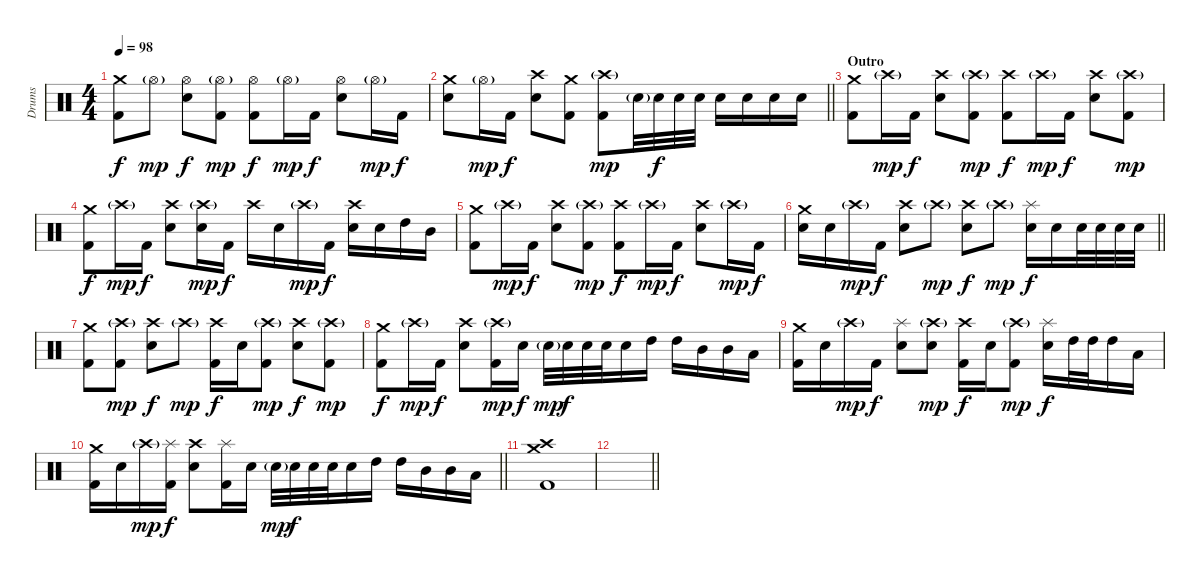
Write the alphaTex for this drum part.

\track ("Drums " "Drums ") {instrument percussion bank 32}
\staff {score}
\articulation defaults
\ts (4 4)
\tempo 98
\clef neutral
\ks c
("Crash medium (hit)" "Kick (hit) 2").8{dy f} "Hi-Hat (open)"{g}.8{dy mp} ("Hi-Hat (open)" "Electric Snare (hit)").8{dy f} ("Hi-Hat (open)"{g} "Kick (hit) 2").8{dy mp} ("Hi-Hat (open)" "Kick (hit) 2").8{dy f} "Hi-Hat (open)"{g}.16{dy mp} "Kick (hit) 2".16{dy f} ("Hi-Hat (open)" "Electric Snare (hit)").8 "Hi-Hat (open)"{g}.16{dy mp} "Kick (hit) 2".16{dy f} |
\barLineRight lightlight
("Crash medium (hit)" "Electric Snare (hit)").8 "Hi-Hat (open)"{g}.16{dy mp} "Kick (hit) 2".16{dy f} ("Crash high (hit)" "Electric Snare (hit)").8 ("Crash medium (hit)" "Kick (hit) 2").8 ("Crash high (hit)"{g} "Kick (hit) 2").8{dy mp} "Electric Snare (hit)"{g}.32 "Electric Snare (hit)".32{dy f} "Electric Snare (hit)".32 "Electric Snare (hit)".32 "Electric Snare (hit)".16 "Electric Snare (hit)".16 "Electric Snare (hit)".16 "Electric Snare (hit)".16 |
\section ("" "Outro")
("Crash medium (hit)" "Kick (hit) 2").8 "Crash high (hit)"{g}.16{dy mp} "Kick (hit) 2".16{dy f} ("Crash high (hit)" "Electric Snare (hit)").8 ("Crash high (hit)"{g} "Kick (hit) 2").8{dy mp} ("Crash high (hit)" "Kick (hit) 2").8{dy f} "Crash high (hit)"{g}.16{dy mp} "Kick (hit) 2".16{dy f} ("Crash high (hit)" "Electric Snare (hit)").8 ("Crash high (hit)"{g} "Kick (hit) 2").8{dy mp} |
("Crash medium (hit)" "Kick (hit) 2").8{dy f} "Crash high (hit)"{g}.16{dy mp} "Kick (hit) 2".16{dy f} ("Crash high (hit)" "Electric Snare (hit)").8 ("Crash high (hit)"{g} "Electric Snare (hit)").16{dy mp} "Kick (hit) 2".16{dy f} "Crash high (hit)".16 "Electric Snare (hit)".16 "Crash high (hit)"{g}.16{dy mp} "Kick (hit) 2".16{dy f} ("Crash high (hit)" "Electric Snare (hit)").16 "Electric Snare (hit)".16 "High Tom (hit)".16 "Mid Tom (hit)".16 |
("Crash medium (hit)" "Kick (hit) 2").8 "Crash high (hit)"{g}.16{dy mp} "Kick (hit) 2".16{dy f} ("Crash high (hit)" "Electric Snare (hit)").8 ("Crash high (hit)"{g} "Kick (hit) 2").8{dy mp} ("Crash high (hit)" "Kick (hit) 2").8{dy f} "Crash high (hit)"{g}.16{dy mp} "Kick (hit) 2".16{dy f} ("Crash high (hit)" "Electric Snare (hit)").8 "Crash high (hit)"{g}.16{dy mp} "Kick (hit) 2".16{dy f} |
\barLineRight lightlight
("Crash medium (hit)" "Electric Snare (hit)").16 "Electric Snare (hit)".16 "Crash high (hit)"{g}.16{dy mp} "Kick (hit) 2".16{dy f} ("Crash high (hit)" "Electric Snare (hit)").8 "Crash high (hit)"{g}.8{dy mp} ("Crash high (hit)" "Electric Snare (hit)").8{dy f} "Crash high (hit)"{g}.8{dy mp} ("Splash (hit)" "Electric Snare (hit)").16{dy f} "Electric Snare (hit)".16 "Electric Snare (hit)".32 "Electric Snare (hit)".32 "Electric Snare (hit)".32 "Electric Snare (hit)".32 |
("Crash medium (hit)" "Kick (hit) 2").8 ("Crash high (hit)"{g} "Kick (hit) 2").8{dy mp} ("Crash high (hit)" "Electric Snare (hit)").8{dy f} "Crash high (hit)"{g}.8{dy mp} ("Crash high (hit)" "Kick (hit) 2").16{dy f} "Electric Snare (hit)".16 ("Crash high (hit)"{g} "Kick (hit) 2").8{dy mp} ("Crash high (hit)" "Electric Snare (hit)").8{dy f} ("Crash high (hit)"{g} "Kick (hit) 2").8{dy mp} |
("Crash medium (hit)" "Kick (hit) 2").8{dy f} "Crash high (hit)"{g}.16{dy mp} "Kick (hit) 2".16{dy f} ("Crash high (hit)" "Electric Snare (hit)").8 ("Crash high (hit)"{g} "Kick (hit) 2").16{dy mp} "Electric Snare (hit)".16{dy f} "Electric Snare (hit)"{g}.32{dy mp} "Electric Snare (hit)".32{dy f} "Electric Snare (hit)".32 "Electric Snare (hit)".32 "Electric Snare (hit)".16 "High Tom (hit)".16 "High Tom (hit)".16 "Mid Tom (hit)".16 "Mid Tom (hit)".16 "Low Tom (hit)".16 |
("Crash medium (hit)" "Kick (hit) 2").16 "Electric Snare (hit)".16 "Crash high (hit)"{g}.16{dy mp} "Kick (hit) 2".16{dy f} ("Splash (hit)" "Electric Snare (hit)").8 ("Crash high (hit)"{g} "Electric Snare (hit)").8{dy mp} ("Crash high (hit)" "Kick (hit) 2").16{dy f} "Electric Snare (hit)".16 ("Crash high (hit)"{g} "Kick (hit) 2").8{dy mp} ("Splash (hit)" "Electric Snare (hit)").16{dy f} "High Tom (hit)".32 "High Tom (hit)".32 "High Tom (hit)".16 "Low Tom (hit)".16 |
\barLineRight lightlight
("Crash medium (hit)" "Kick (hit) 2").16 "Electric Snare (hit)".16 "Crash high (hit)"{g}.16{dy mp} ("Splash (hit)" "Kick (hit) 2").16{dy f} ("Crash high (hit)" "Electric Snare (hit)").8 ("Splash (hit)" "Kick (hit) 2").16 "Electric Snare (hit)".16 "Electric Snare (hit)"{g}.32{dy mp} "Electric Snare (hit)".32{dy f} "Electric Snare (hit)".32 "Electric Snare (hit)".32 "Electric Snare (hit)".16 "High Tom (hit)".16 "High Tom (hit)".16 "Mid Tom (hit)".16 "Mid Tom (hit)".16 "Low Tom (hit)".16 |
("Crash high (hit)" "Crash medium (hit)" "Kick (hit) 2").1 |
\barLineRight lightlight
